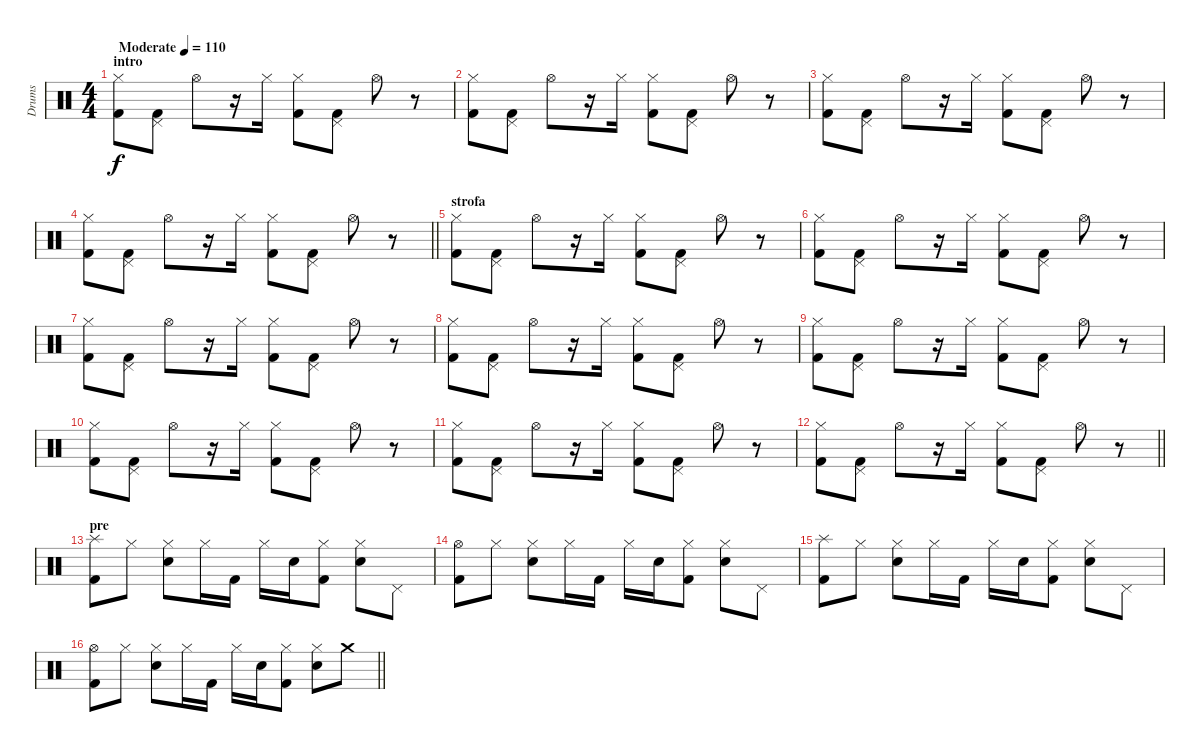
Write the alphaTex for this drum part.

\track ("Drums" "Drums") {instrument percussion}
\staff {score}
\articulation defaults
\ts (4 4)
\section ("" "intro")
\tempo (110 "Moderate")
\clef neutral
\ks c
("Hi-Hat (closed)" "Kick (hit) 2").8{dy f} ("Pedal Hi-Hat (hit)" "Kick (hit) 2").8 "Hi-Hat (open)".8 r.16 "Hi-Hat (closed)".16 ("Hi-Hat (closed)" "Kick (hit) 2").8 ("Pedal Hi-Hat (hit)" "Kick (hit) 2").8 "Hi-Hat (open)".8 r.8 |
("Hi-Hat (closed)" "Kick (hit) 2").8 ("Pedal Hi-Hat (hit)" "Kick (hit) 2").8 "Hi-Hat (open)".8 r.16 "Hi-Hat (closed)".16 ("Hi-Hat (closed)" "Kick (hit) 2").8 ("Pedal Hi-Hat (hit)" "Kick (hit) 2").8 "Hi-Hat (open)".8 r.8 |
("Hi-Hat (closed)" "Kick (hit) 2").8 ("Pedal Hi-Hat (hit)" "Kick (hit) 2").8 "Hi-Hat (open)".8 r.16 "Hi-Hat (closed)".16 ("Hi-Hat (closed)" "Kick (hit) 2").8 ("Pedal Hi-Hat (hit)" "Kick (hit) 2").8 "Hi-Hat (open)".8 r.8 |
\barLineRight lightlight
("Hi-Hat (closed)" "Kick (hit) 2").8 ("Pedal Hi-Hat (hit)" "Kick (hit) 2").8 "Hi-Hat (open)".8 r.16 "Hi-Hat (closed)".16 ("Hi-Hat (closed)" "Kick (hit) 2").8 ("Pedal Hi-Hat (hit)" "Kick (hit) 2").8 "Hi-Hat (open)".8 r.8 |
\section ("" "strofa")
("Hi-Hat (closed)" "Kick (hit) 2").8 ("Pedal Hi-Hat (hit)" "Kick (hit) 2").8 "Hi-Hat (open)".8 r.16 "Hi-Hat (closed)".16 ("Hi-Hat (closed)" "Kick (hit) 2").8 ("Pedal Hi-Hat (hit)" "Kick (hit) 2").8 "Hi-Hat (open)".8 r.8 |
("Hi-Hat (closed)" "Kick (hit) 2").8 ("Pedal Hi-Hat (hit)" "Kick (hit) 2").8 "Hi-Hat (open)".8 r.16 "Hi-Hat (closed)".16 ("Hi-Hat (closed)" "Kick (hit) 2").8 ("Pedal Hi-Hat (hit)" "Kick (hit) 2").8 "Hi-Hat (open)".8 r.8 |
("Hi-Hat (closed)" "Kick (hit) 2").8 ("Pedal Hi-Hat (hit)" "Kick (hit) 2").8 "Hi-Hat (open)".8 r.16 "Hi-Hat (closed)".16 ("Hi-Hat (closed)" "Kick (hit) 2").8 ("Pedal Hi-Hat (hit)" "Kick (hit) 2").8 "Hi-Hat (open)".8 r.8 |
("Hi-Hat (closed)" "Kick (hit) 2").8 ("Pedal Hi-Hat (hit)" "Kick (hit) 2").8 "Hi-Hat (open)".8 r.16 "Hi-Hat (closed)".16 ("Hi-Hat (closed)" "Kick (hit) 2").8 ("Pedal Hi-Hat (hit)" "Kick (hit) 2").8 "Hi-Hat (open)".8 r.8 |
("Hi-Hat (closed)" "Kick (hit) 2").8 ("Pedal Hi-Hat (hit)" "Kick (hit) 2").8 "Hi-Hat (open)".8 r.16 "Hi-Hat (closed)".16 ("Hi-Hat (closed)" "Kick (hit) 2").8 ("Pedal Hi-Hat (hit)" "Kick (hit) 2").8 "Hi-Hat (open)".8 r.8 |
("Hi-Hat (closed)" "Kick (hit) 2").8 ("Pedal Hi-Hat (hit)" "Kick (hit) 2").8 "Hi-Hat (open)".8 r.16 "Hi-Hat (closed)".16 ("Hi-Hat (closed)" "Kick (hit) 2").8 ("Pedal Hi-Hat (hit)" "Kick (hit) 2").8 "Hi-Hat (open)".8 r.8 |
("Hi-Hat (closed)" "Kick (hit) 2").8 ("Pedal Hi-Hat (hit)" "Kick (hit) 2").8 "Hi-Hat (open)".8 r.16 "Hi-Hat (closed)".16 ("Hi-Hat (closed)" "Kick (hit) 2").8 ("Pedal Hi-Hat (hit)" "Kick (hit) 2").8 "Hi-Hat (open)".8 r.8 |
\barLineRight lightlight
("Hi-Hat (closed)" "Kick (hit) 2").8 ("Pedal Hi-Hat (hit)" "Kick (hit) 2").8 "Hi-Hat (open)".8 r.16 "Hi-Hat (closed)".16 ("Hi-Hat (closed)" "Kick (hit) 2").8 ("Pedal Hi-Hat (hit)" "Kick (hit) 2").8 "Hi-Hat (open)".8 r.8 |
\section ("" "pre")
("Splash (hit)" "Kick (hit) 2").8 "Hi-Hat (closed)".8 ("Hi-Hat (closed)" "Snare (hit) 2").8 "Hi-Hat (closed)".16 "Kick (hit) 2".16 "Hi-Hat (closed)".16 "Snare (hit) 2".16 ("Hi-Hat (closed)" "Kick (hit) 2").8 ("Hi-Hat (closed)" "Snare (hit) 2").8 "Pedal Hi-Hat (hit)".8 |
("Hi-Hat (open)" "Kick (hit) 2").8 "Hi-Hat (closed)".8 ("Hi-Hat (closed)" "Snare (hit) 2").8 "Hi-Hat (closed)".16 "Kick (hit) 2".16 "Hi-Hat (closed)".16 "Snare (hit) 2".16 ("Hi-Hat (closed)" "Kick (hit) 2").8 ("Hi-Hat (closed)" "Snare (hit) 2").8 "Pedal Hi-Hat (hit)".8 |
("Splash (hit)" "Kick (hit) 2").8 "Hi-Hat (closed)".8 ("Hi-Hat (closed)" "Snare (hit) 2").8 "Hi-Hat (closed)".16 "Kick (hit) 2".16 "Hi-Hat (closed)".16 "Snare (hit) 2".16 ("Hi-Hat (closed)" "Kick (hit) 2").8 ("Hi-Hat (closed)" "Snare (hit) 2").8 "Pedal Hi-Hat (hit)".8 |
\barLineRight lightlight
("Hi-Hat (open)" "Kick (hit) 2").8 "Hi-Hat (closed)".8 ("Hi-Hat (closed)" "Snare (hit) 2").8 "Hi-Hat (closed)".16 "Kick (hit) 2".16 "Hi-Hat (closed)".16 "Snare (hit) 2".16 ("Hi-Hat (closed)" "Kick (hit) 2").8 ("Hi-Hat (closed)" "Snare (hit) 2").8 "Crash medium (hit)".8
